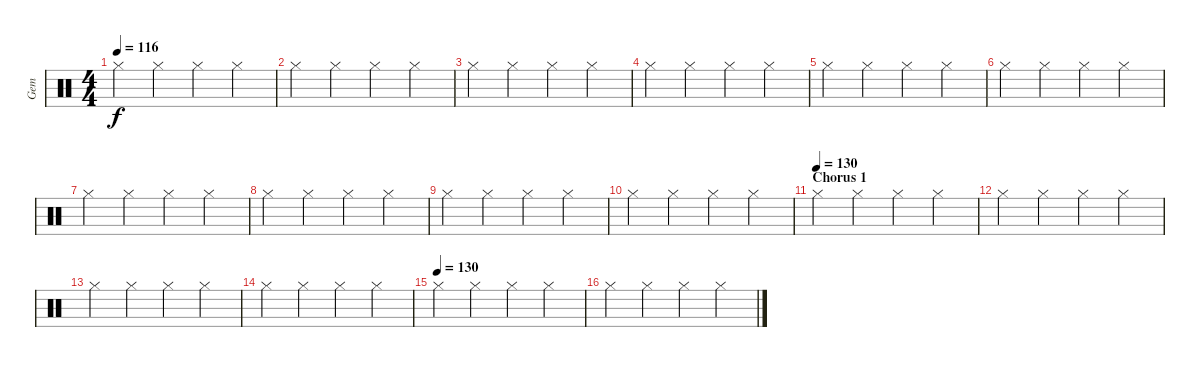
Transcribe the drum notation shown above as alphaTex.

\track ("Gem" "Gem") {instrument percussion}
\staff {score}
\articulation defaults
\ts (4 4)
\tempo 116
\clef neutral
\ks c "Hi-Hat (closed)".4{dy f} "Hi-Hat (closed)".4 "Hi-Hat (closed)".4 "Hi-Hat (closed)".4
|
"Hi-Hat (closed)".4 "Hi-Hat (closed)".4 "Hi-Hat (closed)".4 "Hi-Hat (closed)".4 |
"Hi-Hat (closed)".4 "Hi-Hat (closed)".4 "Hi-Hat (closed)".4 "Hi-Hat (closed)".4 |
"Hi-Hat (closed)".4 "Hi-Hat (closed)".4 "Hi-Hat (closed)".4 "Hi-Hat (closed)".4 |
"Hi-Hat (closed)".4 "Hi-Hat (closed)".4 "Hi-Hat (closed)".4 "Hi-Hat (closed)".4 |
"Hi-Hat (closed)".4 "Hi-Hat (closed)".4 "Hi-Hat (closed)".4 "Hi-Hat (closed)".4 |
"Hi-Hat (closed)".4 "Hi-Hat (closed)".4 "Hi-Hat (closed)".4 "Hi-Hat (closed)".4 |
"Hi-Hat (closed)".4 "Hi-Hat (closed)".4 "Hi-Hat (closed)".4 "Hi-Hat (closed)".4 |
"Hi-Hat (closed)".4 "Hi-Hat (closed)".4 "Hi-Hat (closed)".4 "Hi-Hat (closed)".4 |
"Hi-Hat (closed)".4 "Hi-Hat (closed)".4 "Hi-Hat (closed)".4 "Hi-Hat (closed)".4 |
\section ("" "Chorus 1")
\tempo (130)
"Hi-Hat (closed)".4 "Hi-Hat (closed)".4 "Hi-Hat (closed)".4 "Hi-Hat (closed)".4 |
"Hi-Hat (closed)".4 "Hi-Hat (closed)".4 "Hi-Hat (closed)".4 "Hi-Hat (closed)".4 |
"Hi-Hat (closed)".4 "Hi-Hat (closed)".4 "Hi-Hat (closed)".4 "Hi-Hat (closed)".4 |
"Hi-Hat (closed)".4 "Hi-Hat (closed)".4 "Hi-Hat (closed)".4 "Hi-Hat (closed)".4 |
\tempo (130)
"Hi-Hat (closed)".4 "Hi-Hat (closed)".4 "Hi-Hat (closed)".4 "Hi-Hat (closed)".4 |
"Hi-Hat (closed)".4 "Hi-Hat (closed)".4 "Hi-Hat (closed)".4 "Hi-Hat (closed)".4
